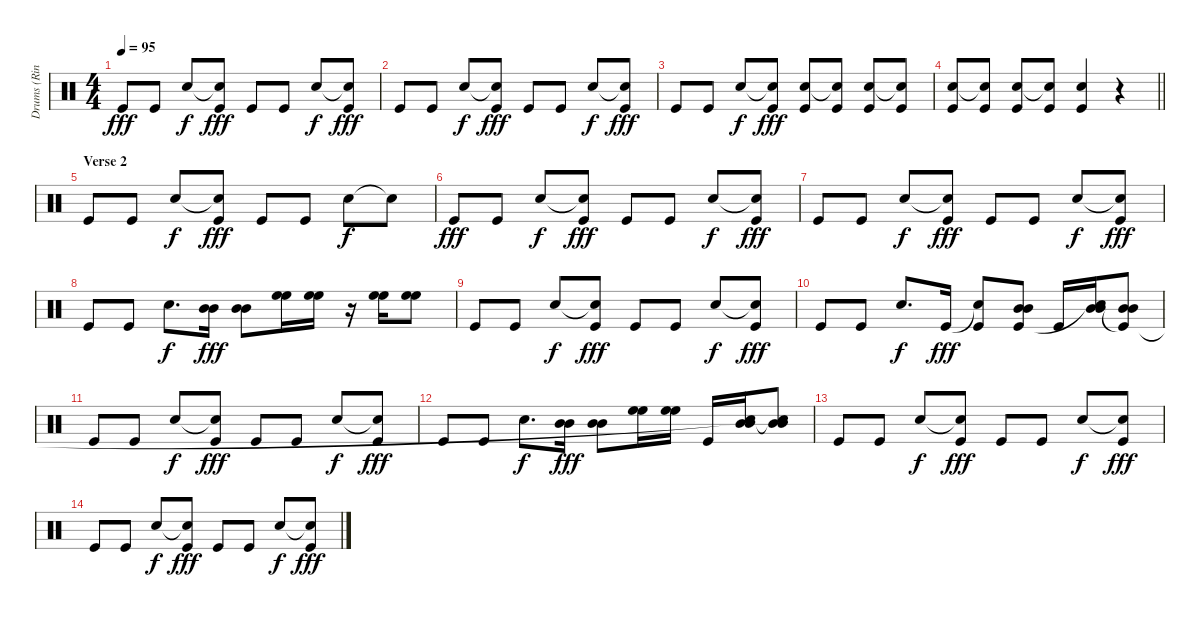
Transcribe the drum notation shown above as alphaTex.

\track ("Drums (Ringo Starr)" "Drums (Rin") {instrument percussion}
\staff {score}
\articulation defaults
\ts (4 4)
\tempo 95
\clef neutral
\ks c "Kick (hit)".8{dy fff} "Kick (hit)".8 "Electric Snare (hit)".8{dy f}
("Snare (hit)"{t} "Kick (hit)").8{dy fff} "Kick (hit)".8 "Kick (hit)".8 "Electric Snare (hit)".8{dy f} ("Snare (hit)"{t} "Kick (hit)").8{dy fff} |
"Kick (hit)".8 "Kick (hit)".8 "Electric Snare (hit)".8{dy f} ("Snare (hit)"{t} "Kick (hit)").8{dy fff} "Kick (hit)".8 "Kick (hit)".8 "Electric Snare (hit)".8{dy f} ("Snare (hit)"{t} "Kick (hit)").8{dy fff} |
"Kick (hit)".8 "Kick (hit)".8 "Electric Snare (hit)".8{dy f} ("Snare (hit)"{t} "Kick (hit)").8{dy fff} ("Electric Snare (hit)" "Kick (hit)").8 ("Snare (hit)"{t} "Kick (hit)").8 ("Electric Snare (hit)" "Kick (hit)").8 ("Snare (hit)"{t} "Kick (hit)").8 |
\barLineRight lightlight
("Electric Snare (hit)" "Kick (hit)").8 ("Snare (hit)"{t} "Kick (hit)").8 ("Electric Snare (hit)" "Kick (hit)").8 ("Snare (hit)"{t} "Kick (hit)").8 ("Electric Snare (hit)" "Kick (hit)").4 r.4 |
\section ("" "Verse 2")
"Kick (hit)".8 "Kick (hit)".8 "Electric Snare (hit)".8{dy f} ("Snare (hit)"{t} "Kick (hit)").8{dy fff} "Kick (hit)".8 "Kick (hit)".8 "Electric Snare (hit)".8{dy f} "Snare (hit)"{t}.8 |
"Kick (hit)".8{dy fff} "Kick (hit)".8 "Electric Snare (hit)".8{dy f} ("Snare (hit)"{t} "Kick (hit)").8{dy fff} "Kick (hit)".8 "Kick (hit)".8 "Electric Snare (hit)".8{dy f} ("Snare (hit)"{t} "Kick (hit)").8{dy fff} |
"Kick (hit)".8 "Kick (hit)".8 "Electric Snare (hit)".8{dy f} ("Snare (hit)"{t} "Kick (hit)").8{dy fff} "Kick (hit)".8 "Kick (hit)".8 "Electric Snare (hit)".8{dy f} ("Snare (hit)"{t} "Kick (hit)").8{dy fff} |
"Kick (hit)".8 "Kick (hit)".8 "Electric Snare (hit)".8{d dy f} ("Mid Tom (hit)" "Mid Tom (hit)").16{dy fff} ("Mid Tom (hit)" "Mid Tom (hit)").8 ("High Floor Tom (hit)" "High Floor Tom (hit)").16 ("High Floor Tom (hit)" "High Floor Tom (hit)").16 r.16 ("High Floor Tom (hit)" "High Floor Tom (hit)").16 ("High Floor Tom (hit)" "High Floor Tom (hit)").8 |
"Kick (hit)".8 "Kick (hit)".8 "Electric Snare (hit)".8{dy f} ("Snare (hit)"{t} "Kick (hit)").8{dy fff} "Kick (hit)".8 "Kick (hit)".8 "Electric Snare (hit)".8{dy f} ("Snare (hit)"{t} "Kick (hit)").8{dy fff} |
"Kick (hit)".8 "Kick (hit)".8 "Electric Snare (hit)".8{d dy f} "Kick (hit)".16{dy fff} ("Snare (hit)"{t} "Kick (hit)").8 ("Mid Tom (hit)" "Mid Tom (hit)" "Kick (hit)").8 "Kick (hit)".16 ("Mid Tom (hit)" "Mid Tom (hit)" "Snare (hit)"{t}).16 ("Mid Tom (hit)" "Mid Tom (hit)" "Kick (hit)"{t}).8 |
"Kick (hit)".8 "Kick (hit)".8 "Electric Snare (hit)".8{dy f} ("Snare (hit)"{t} "Kick (hit)").8{dy fff} "Kick (hit)".8 "Kick (hit)".8 "Electric Snare (hit)".8{dy f} ("Snare (hit)"{t} "Kick (hit)").8{dy fff} |
"Kick (hit)".8 "Kick (hit)".8 "Electric Snare (hit)".8{d dy f} ("Mid Tom (hit)" "Mid Tom (hit)").16{dy fff} ("Mid Tom (hit)" "Mid Tom (hit)").8 ("High Floor Tom (hit)" "High Floor Tom (hit)").16 ("High Floor Tom (hit)" "High Floor Tom (hit)").16 "Kick (hit)".16 ("Mid Tom (hit)" "Mid Tom (hit)" "Snare (hit)"{t}).16 ("Mid Tom (hit)" "Mid Tom (hit)" "Snare (hit)"{t}).8 |
"Kick (hit)".8 "Kick (hit)".8 "Electric Snare (hit)".8{dy f} ("Snare (hit)"{t} "Kick (hit)").8{dy fff} "Kick (hit)".8 "Kick (hit)".8 "Electric Snare (hit)".8{dy f} ("Snare (hit)"{t} "Kick (hit)").8{dy fff} |
"Kick (hit)".8 "Kick (hit)".8 "Electric Snare (hit)".8{dy f} ("Snare (hit)"{t} "Kick (hit)").8{dy fff} "Kick (hit)".8 "Kick (hit)".8 "Electric Snare (hit)".8{dy f} ("Snare (hit)"{t} "Kick (hit)").8{dy fff}
